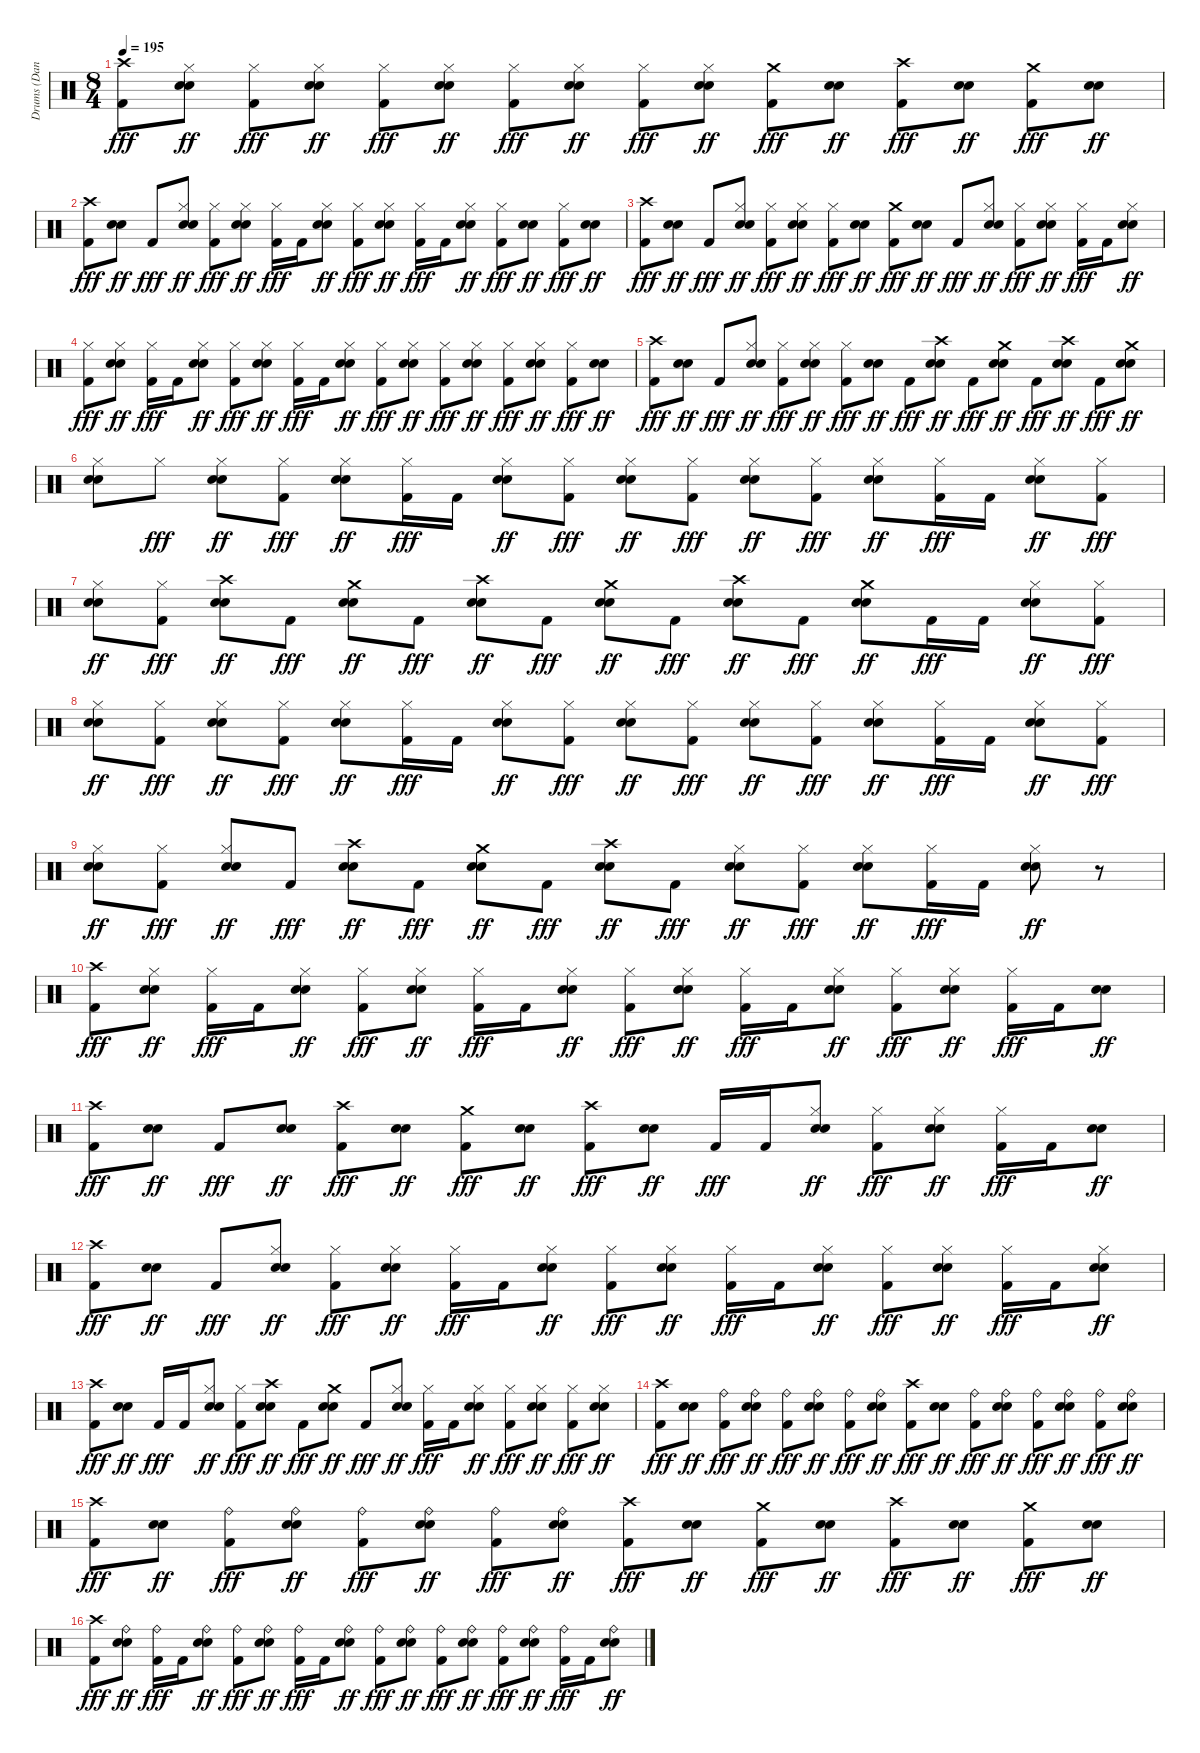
\track ("Drums (Dan Zimmermann)" "Drums (Dan") {instrument percussion}
\staff {score}
\articulation defaults
\ts (8 4)
\tempo 195
\clef neutral
\ks c
("Kick (hit) 2" "Crash high (hit)").8{dy fff} ("Metronome (bell)" "Hi-Hat (closed)" "Snare (hit) 2").8{dy ff} ("Kick (hit) 2" "Hi-Hat (closed)").8{dy fff} ("Metronome (bell)" "Hi-Hat (closed)" "Snare (hit) 2").8{dy ff} ("Kick (hit) 2" "Hi-Hat (closed)").8{dy fff} ("Metronome (bell)" "Hi-Hat (closed)" "Snare (hit) 2").8{dy ff} ("Kick (hit) 2" "Hi-Hat (closed)").8{dy fff} ("Metronome (bell)" "Hi-Hat (closed)" "Snare (hit) 2").8{dy ff} ("Kick (hit) 2" "Hi-Hat (closed)").8{dy fff} ("Metronome (bell)" "Hi-Hat (closed)" "Snare (hit) 2").8{dy ff} ("Kick (hit) 2" "Crash medium (hit)").8{dy fff} ("Metronome (bell)" "Snare (hit) 2").8{dy ff} ("Kick (hit) 2" "Crash high (hit)").8{dy fff} ("Metronome (bell)" "Snare (hit) 2").8{dy ff} ("Kick (hit) 2" "Crash medium (hit)").8{dy fff} ("Metronome (bell)" "Snare (hit) 2").8{dy ff} |
("Kick (hit) 2" "Crash high (hit)").8{dy fff} ("Metronome (bell)" "Snare (hit) 2").8{dy ff} "Kick (hit) 2".8{dy fff} ("Metronome (bell)" "Hi-Hat (closed)" "Snare (hit) 2").8{dy ff} ("Kick (hit) 2" "Hi-Hat (closed)").8{dy fff} ("Metronome (bell)" "Hi-Hat (closed)" "Snare (hit) 2").8{dy ff} ("Kick (hit) 2" "Hi-Hat (closed)").16{dy fff} "Kick (hit) 2".16 ("Metronome (bell)" "Hi-Hat (closed)" "Snare (hit) 2").8{dy ff} ("Kick (hit) 2" "Hi-Hat (closed)").8{dy fff} ("Metronome (bell)" "Hi-Hat (closed)" "Snare (hit) 2").8{dy ff} ("Kick (hit) 2" "Hi-Hat (closed)").16{dy fff} "Kick (hit) 2".16 ("Metronome (bell)" "Hi-Hat (closed)" "Snare (hit) 2").8{dy ff} ("Kick (hit) 2" "Hi-Hat (closed)").8{dy fff} ("Metronome (bell)" "Snare (hit) 2").8{dy ff} ("Kick (hit) 2" "Hi-Hat (closed)").8{dy fff} ("Metronome (bell)" "Snare (hit) 2").8{dy ff} |
("Kick (hit) 2" "Crash high (hit)").8{dy fff} ("Metronome (bell)" "Snare (hit) 2").8{dy ff} "Kick (hit) 2".8{dy fff} ("Metronome (bell)" "Hi-Hat (closed)" "Snare (hit) 2").8{dy ff} ("Kick (hit) 2" "Hi-Hat (closed)").8{dy fff} ("Metronome (bell)" "Hi-Hat (closed)" "Snare (hit) 2").8{dy ff} ("Kick (hit) 2" "Hi-Hat (closed)").8{dy fff} ("Metronome (bell)" "Snare (hit) 2").8{dy ff} ("Kick (hit) 2" "Crash medium (hit)").8{dy fff} ("Metronome (bell)" "Snare (hit) 2").8{dy ff} "Kick (hit) 2".8{dy fff} ("Metronome (bell)" "Hi-Hat (closed)" "Snare (hit) 2").8{dy ff} ("Kick (hit) 2" "Hi-Hat (closed)").8{dy fff} ("Metronome (bell)" "Hi-Hat (closed)" "Snare (hit) 2").8{dy ff} ("Kick (hit) 2" "Hi-Hat (closed)").16{dy fff} "Kick (hit) 2".16 ("Metronome (bell)" "Hi-Hat (closed)" "Snare (hit) 2").8{dy ff} |
("Kick (hit) 2" "Hi-Hat (closed)").8{dy fff} ("Metronome (bell)" "Hi-Hat (closed)" "Snare (hit) 2").8{dy ff} ("Kick (hit) 2" "Hi-Hat (closed)").16{dy fff} "Kick (hit) 2".16 ("Metronome (bell)" "Hi-Hat (closed)" "Snare (hit) 2").8{dy ff} ("Kick (hit) 2" "Hi-Hat (closed)").8{dy fff} ("Metronome (bell)" "Hi-Hat (closed)" "Snare (hit) 2").8{dy ff} ("Kick (hit) 2" "Hi-Hat (closed)").16{dy fff} "Kick (hit) 2".16 ("Metronome (bell)" "Hi-Hat (closed)" "Snare (hit) 2").8{dy ff} ("Kick (hit) 2" "Hi-Hat (closed)").8{dy fff} ("Metronome (bell)" "Hi-Hat (closed)" "Snare (hit) 2").8{dy ff} ("Kick (hit) 2" "Hi-Hat (closed)").8{dy fff} ("Metronome (bell)" "Hi-Hat (closed)" "Snare (hit) 2").8{dy ff} ("Kick (hit) 2" "Hi-Hat (closed)").8{dy fff} ("Metronome (bell)" "Hi-Hat (closed)" "Snare (hit) 2").8{dy ff} ("Kick (hit) 2" "Hi-Hat (closed)").8{dy fff} ("Metronome (bell)" "Snare (hit) 2").8{dy ff} |
("Kick (hit) 2" "Crash high (hit)").8{dy fff} ("Metronome (bell)" "Snare (hit) 2").8{dy ff} "Kick (hit) 2".8{dy fff} ("Metronome (bell)" "Hi-Hat (closed)" "Snare (hit) 2").8{dy ff} ("Kick (hit) 2" "Hi-Hat (closed)").8{dy fff} ("Metronome (bell)" "Hi-Hat (closed)" "Snare (hit) 2").8{dy ff} ("Kick (hit) 2" "Hi-Hat (closed)").8{dy fff} ("Metronome (bell)" "Snare (hit) 2").8{dy ff} "Kick (hit) 2".8{dy fff} ("Metronome (bell)" "Crash high (hit)" "Snare (hit) 2").8{dy ff} "Kick (hit) 2".8{dy fff} ("Metronome (bell)" "Crash medium (hit)" "Snare (hit) 2").8{dy ff} "Kick (hit) 2".8{dy fff} ("Metronome (bell)" "Crash high (hit)" "Snare (hit) 2").8{dy ff} "Kick (hit) 2".8{dy fff} ("Metronome (bell)" "Crash medium (hit)" "Snare (hit) 2").8{dy ff} |
("Metronome (bell)" "Hi-Hat (closed)" "Snare (hit) 2").8 "Hi-Hat (closed)".8{dy fff} ("Metronome (bell)" "Hi-Hat (closed)" "Snare (hit) 2").8{dy ff} ("Kick (hit) 2" "Hi-Hat (closed)").8{dy fff} ("Metronome (bell)" "Hi-Hat (closed)" "Snare (hit) 2").8{dy ff} ("Kick (hit) 2" "Hi-Hat (closed)").16{dy fff} "Kick (hit) 2".16 ("Metronome (bell)" "Hi-Hat (closed)" "Snare (hit) 2").8{dy ff} ("Kick (hit) 2" "Hi-Hat (closed)").8{dy fff} ("Metronome (bell)" "Hi-Hat (closed)" "Snare (hit) 2").8{dy ff} ("Kick (hit) 2" "Hi-Hat (closed)").8{dy fff} ("Metronome (bell)" "Hi-Hat (closed)" "Snare (hit) 2").8{dy ff} ("Kick (hit) 2" "Hi-Hat (closed)").8{dy fff} ("Metronome (bell)" "Hi-Hat (closed)" "Snare (hit) 2").8{dy ff} ("Kick (hit) 2" "Hi-Hat (closed)").16{dy fff} "Kick (hit) 2".16 ("Metronome (bell)" "Hi-Hat (closed)" "Snare (hit) 2").8{dy ff} ("Kick (hit) 2" "Hi-Hat (closed)").8{dy fff} |
("Metronome (bell)" "Hi-Hat (closed)" "Snare (hit) 2").8{dy ff} ("Kick (hit) 2" "Hi-Hat (closed)").8{dy fff} ("Metronome (bell)" "Crash high (hit)" "Snare (hit) 2").8{dy ff} "Kick (hit) 2".8{dy fff} ("Metronome (bell)" "Crash medium (hit)" "Snare (hit) 2").8{dy ff} "Kick (hit) 2".8{dy fff} ("Metronome (bell)" "Crash high (hit)" "Snare (hit) 2").8{dy ff} "Kick (hit) 2".8{dy fff} ("Metronome (bell)" "Crash medium (hit)" "Snare (hit) 2").8{dy ff} "Kick (hit) 2".8{dy fff} ("Metronome (bell)" "Crash high (hit)" "Snare (hit) 2").8{dy ff} "Kick (hit) 2".8{dy fff} ("Metronome (bell)" "Crash medium (hit)" "Snare (hit) 2").8{dy ff} "Kick (hit) 2".16{dy fff} "Kick (hit) 2".16 ("Metronome (bell)" "Hi-Hat (closed)" "Snare (hit) 2").8{dy ff} ("Kick (hit) 2" "Hi-Hat (closed)").8{dy fff} |
("Metronome (bell)" "Hi-Hat (closed)" "Snare (hit) 2").8{dy ff} ("Kick (hit) 2" "Hi-Hat (closed)").8{dy fff} ("Metronome (bell)" "Hi-Hat (closed)" "Snare (hit) 2").8{dy ff} ("Kick (hit) 2" "Hi-Hat (closed)").8{dy fff} ("Metronome (bell)" "Hi-Hat (closed)" "Snare (hit) 2").8{dy ff} ("Kick (hit) 2" "Hi-Hat (closed)").16{dy fff} "Kick (hit) 2".16 ("Metronome (bell)" "Hi-Hat (closed)" "Snare (hit) 2").8{dy ff} ("Kick (hit) 2" "Hi-Hat (closed)").8{dy fff} ("Metronome (bell)" "Hi-Hat (closed)" "Snare (hit) 2").8{dy ff} ("Kick (hit) 2" "Hi-Hat (closed)").8{dy fff} ("Metronome (bell)" "Hi-Hat (closed)" "Snare (hit) 2").8{dy ff} ("Kick (hit) 2" "Hi-Hat (closed)").8{dy fff} ("Metronome (bell)" "Hi-Hat (closed)" "Snare (hit) 2").8{dy ff} ("Kick (hit) 2" "Hi-Hat (closed)").16{dy fff} "Kick (hit) 2".16 ("Metronome (bell)" "Hi-Hat (closed)" "Snare (hit) 2").8{dy ff} ("Kick (hit) 2" "Hi-Hat (closed)").8{dy fff} |
("Metronome (bell)" "Hi-Hat (closed)" "Snare (hit) 2").8{dy ff} ("Kick (hit) 2" "Hi-Hat (closed)").8{dy fff} ("Metronome (bell)" "Hi-Hat (closed)" "Snare (hit) 2").8{dy ff} "Kick (hit) 2".8{dy fff} ("Metronome (bell)" "Crash high (hit)" "Snare (hit) 2").8{dy ff} "Kick (hit) 2".8{dy fff} ("Metronome (bell)" "Crash medium (hit)" "Snare (hit) 2").8{dy ff} "Kick (hit) 2".8{dy fff} ("Metronome (bell)" "Crash high (hit)" "Snare (hit) 2").8{dy ff} "Kick (hit) 2".8{dy fff} ("Metronome (bell)" "Hi-Hat (closed)" "Snare (hit) 2").8{dy ff} ("Kick (hit) 2" "Hi-Hat (closed)").8{dy fff} ("Metronome (bell)" "Hi-Hat (closed)" "Snare (hit) 2").8{dy ff} ("Kick (hit) 2" "Hi-Hat (closed)").16{dy fff} "Kick (hit) 2".16 ("Metronome (bell)" "Hi-Hat (closed)" "Snare (hit) 2").8{dy ff} r.8 |
("Kick (hit) 2" "Crash high (hit)").8{dy fff} ("Metronome (bell)" "Hi-Hat (closed)" "Snare (hit) 2").8{dy ff} ("Kick (hit) 2" "Hi-Hat (closed)").16{dy fff} "Kick (hit) 2".16 ("Metronome (bell)" "Hi-Hat (closed)" "Snare (hit) 2").8{dy ff} ("Kick (hit) 2" "Hi-Hat (closed)").8{dy fff} ("Metronome (bell)" "Hi-Hat (closed)" "Snare (hit) 2").8{dy ff} ("Kick (hit) 2" "Hi-Hat (closed)").16{dy fff} "Kick (hit) 2".16 ("Metronome (bell)" "Hi-Hat (closed)" "Snare (hit) 2").8{dy ff} ("Kick (hit) 2" "Hi-Hat (closed)").8{dy fff} ("Metronome (bell)" "Hi-Hat (closed)" "Snare (hit) 2").8{dy ff} ("Kick (hit) 2" "Hi-Hat (closed)").16{dy fff} "Kick (hit) 2".16 ("Metronome (bell)" "Hi-Hat (closed)" "Snare (hit) 2").8{dy ff} ("Kick (hit) 2" "Hi-Hat (closed)").8{dy fff} ("Metronome (bell)" "Hi-Hat (closed)" "Snare (hit) 2").8{dy ff} ("Kick (hit) 2" "Hi-Hat (closed)").16{dy fff} "Kick (hit) 2".16 ("Metronome (bell)" "Snare (hit) 2").8{dy ff} |
("Kick (hit) 2" "Crash high (hit)").8{dy fff} ("Metronome (bell)" "Snare (hit) 2").8{dy ff} "Kick (hit) 2".8{dy fff} ("Metronome (bell)" "Snare (hit) 2").8{dy ff} ("Kick (hit) 2" "Crash high (hit)").8{dy fff} ("Metronome (bell)" "Snare (hit) 2").8{dy ff} ("Kick (hit) 2" "Crash medium (hit)").8{dy fff} ("Metronome (bell)" "Snare (hit) 2").8{dy ff} ("Kick (hit) 2" "Crash high (hit)").8{dy fff} ("Metronome (bell)" "Snare (hit) 2").8{dy ff} "Kick (hit) 2".16{dy fff} "Kick (hit) 2".16 ("Metronome (bell)" "Hi-Hat (closed)" "Snare (hit) 2").8{dy ff} ("Kick (hit) 2" "Hi-Hat (closed)").8{dy fff} ("Metronome (bell)" "Hi-Hat (closed)" "Snare (hit) 2").8{dy ff} ("Kick (hit) 2" "Hi-Hat (closed)").16{dy fff} "Kick (hit) 2".16 ("Metronome (bell)" "Snare (hit) 2").8{dy ff} |
("Kick (hit) 2" "Crash high (hit)").8{dy fff} ("Metronome (bell)" "Snare (hit) 2").8{dy ff} "Kick (hit) 2".8{dy fff} ("Metronome (bell)" "Hi-Hat (closed)" "Snare (hit) 2").8{dy ff} ("Kick (hit) 2" "Hi-Hat (closed)").8{dy fff} ("Metronome (bell)" "Hi-Hat (closed)" "Snare (hit) 2").8{dy ff} ("Kick (hit) 2" "Hi-Hat (closed)").16{dy fff} "Kick (hit) 2".16 ("Metronome (bell)" "Hi-Hat (closed)" "Snare (hit) 2").8{dy ff} ("Kick (hit) 2" "Hi-Hat (closed)").8{dy fff} ("Metronome (bell)" "Hi-Hat (closed)" "Snare (hit) 2").8{dy ff} ("Kick (hit) 2" "Hi-Hat (closed)").16{dy fff} "Kick (hit) 2".16 ("Metronome (bell)" "Hi-Hat (closed)" "Snare (hit) 2").8{dy ff} ("Kick (hit) 2" "Hi-Hat (closed)").8{dy fff} ("Metronome (bell)" "Hi-Hat (closed)" "Snare (hit) 2").8{dy ff} ("Kick (hit) 2" "Hi-Hat (closed)").16{dy fff} "Kick (hit) 2".16 ("Metronome (bell)" "Hi-Hat (closed)" "Snare (hit) 2").8{dy ff} |
("Kick (hit) 2" "Crash high (hit)").8{dy fff} ("Metronome (bell)" "Snare (hit) 2").8{dy ff} "Kick (hit) 2".16{dy fff} "Kick (hit) 2".16 ("Metronome (bell)" "Hi-Hat (closed)" "Snare (hit) 2").8{dy ff} ("Kick (hit) 2" "Hi-Hat (closed)").8{dy fff} ("Metronome (bell)" "Crash high (hit)" "Snare (hit) 2").8{dy ff} "Kick (hit) 2".8{dy fff} ("Metronome (bell)" "Crash medium (hit)" "Snare (hit) 2").8{dy ff} "Kick (hit) 2".8{dy fff} ("Metronome (bell)" "Hi-Hat (closed)" "Snare (hit) 2").8{dy ff} ("Kick (hit) 2" "Hi-Hat (closed)").16{dy fff} "Kick (hit) 2".16 ("Metronome (bell)" "Hi-Hat (closed)" "Snare (hit) 2").8{dy ff} ("Kick (hit) 2" "Hi-Hat (closed)").8{dy fff} ("Metronome (bell)" "Hi-Hat (closed)" "Snare (hit) 2").8{dy ff} ("Kick (hit) 2" "Hi-Hat (closed)").8{dy fff} ("Metronome (bell)" "Hi-Hat (closed)" "Snare (hit) 2").8{dy ff} |
("Kick (hit) 2" "Crash high (hit)").8{dy fff} ("Metronome (bell)" "Snare (hit) 2").8{dy ff} ("Kick (hit) 2" "Ride (bell)").8{dy fff} ("Metronome (bell)" "Ride (bell)" "Snare (hit) 2").8{dy ff} ("Kick (hit) 2" "Ride (bell)").8{dy fff} ("Metronome (bell)" "Ride (bell)" "Snare (hit) 2").8{dy ff} ("Kick (hit) 2" "Ride (bell)").8{dy fff} ("Metronome (bell)" "Ride (bell)" "Snare (hit) 2").8{dy ff} ("Kick (hit) 2" "Crash high (hit)").8{dy fff} ("Metronome (bell)" "Snare (hit) 2").8{dy ff} ("Kick (hit) 2" "Ride (bell)").8{dy fff} ("Metronome (bell)" "Ride (bell)" "Snare (hit) 2").8{dy ff} ("Kick (hit) 2" "Ride (bell)").8{dy fff} ("Metronome (bell)" "Ride (bell)" "Snare (hit) 2").8{dy ff} ("Kick (hit) 2" "Ride (bell)").8{dy fff} ("Metronome (bell)" "Ride (bell)" "Snare (hit) 2").8{dy ff} |
("Kick (hit) 2" "Crash high (hit)").8{dy fff} ("Metronome (bell)" "Snare (hit) 2").8{dy ff} ("Kick (hit) 2" "Ride (bell)").8{dy fff} ("Metronome (bell)" "Ride (bell)" "Snare (hit) 2").8{dy ff} ("Kick (hit) 2" "Ride (bell)").8{dy fff} ("Metronome (bell)" "Ride (bell)" "Snare (hit) 2").8{dy ff} ("Kick (hit) 2" "Ride (bell)").8{dy fff} ("Metronome (bell)" "Ride (bell)" "Snare (hit) 2").8{dy ff} ("Kick (hit) 2" "Crash high (hit)").8{dy fff} ("Metronome (bell)" "Snare (hit) 2").8{dy ff} ("Kick (hit) 2" "Crash medium (hit)").8{dy fff} ("Metronome (bell)" "Snare (hit) 2").8{dy ff} ("Kick (hit) 2" "Crash high (hit)").8{dy fff} ("Metronome (bell)" "Snare (hit) 2").8{dy ff} ("Kick (hit) 2" "Crash medium (hit)").8{dy fff} ("Metronome (bell)" "Snare (hit) 2").8{dy ff} |
("Kick (hit) 2" "Crash high (hit)").8{dy fff} ("Metronome (bell)" "Ride (bell)" "Snare (hit) 2").8{dy ff} ("Kick (hit) 2" "Ride (bell)").16{dy fff} "Kick (hit) 2".16 ("Metronome (bell)" "Ride (bell)" "Snare (hit) 2").8{dy ff} ("Kick (hit) 2" "Ride (bell)").8{dy fff} ("Metronome (bell)" "Ride (bell)" "Snare (hit) 2").8{dy ff} ("Kick (hit) 2" "Ride (bell)").16{dy fff} "Kick (hit) 2".16 ("Metronome (bell)" "Ride (bell)" "Snare (hit) 2").8{dy ff} ("Kick (hit) 2" "Ride (bell)").8{dy fff} ("Metronome (bell)" "Ride (bell)" "Snare (hit) 2").8{dy ff} ("Kick (hit) 2" "Ride (bell)").8{dy fff} ("Metronome (bell)" "Ride (bell)" "Snare (hit) 2").8{dy ff} ("Kick (hit) 2" "Ride (bell)").8{dy fff} ("Metronome (bell)" "Ride (bell)" "Snare (hit) 2").8{dy ff} ("Kick (hit) 2" "Ride (bell)").16{dy fff} "Kick (hit) 2".16 ("Metronome (bell)" "Ride (bell)" "Snare (hit) 2").8{dy ff}
